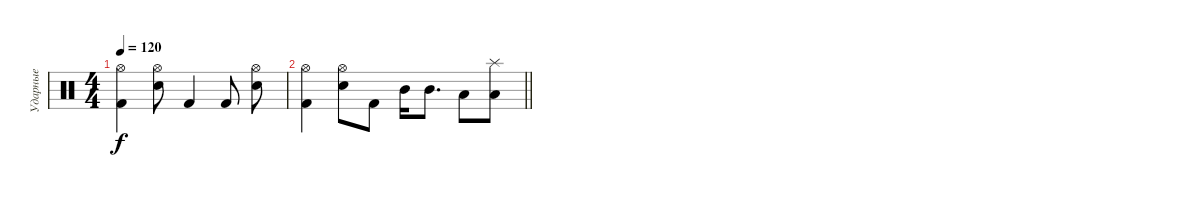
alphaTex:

\track ("Ударные" "Ударные") {instrument percussion}
\staff {score}
\articulation defaults
\ts (4 4)
\tempo 120
\clef neutral
\ks c
("Kick (hit) 2" "Hi-Hat (open)").4{dy f} ("Electric Snare (hit)" "Hi-Hat (open)").8 "Kick (hit) 2".4 "Kick (hit) 2".8 ("Electric Snare (hit)" "Hi-Hat (open)").8 |
\barLineRight lightlight
("Kick (hit) 2" "Hi-Hat (open)").4 ("Electric Snare (hit)" "Hi-Hat (open)").8 "Kick (hit) 2".8 "Mid Tom (hit)".16 "Mid Tom (hit)".8{d} "Low Tom (hit)".8 ("Low Tom (hit)" "Splash (hit)").8
